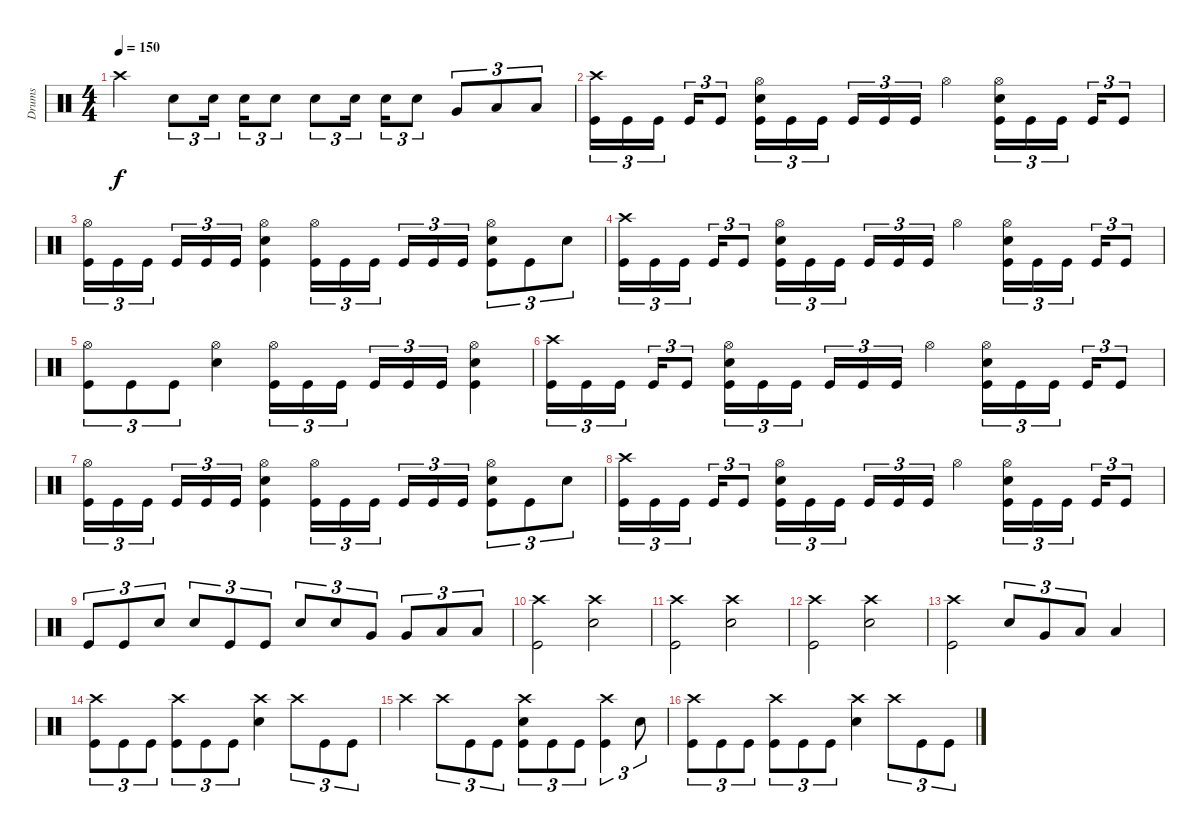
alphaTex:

\track ("Drums" "Drums") {instrument percussion}
\staff {score}
\articulation defaults
\ts (4 4)
\tempo 150
\clef neutral
\ks c "Crash high (hit)".4{dy f} "Electric Snare (hit)".8{tu (3 2)} "Electric Snare (hit)".16{tu (3 2) beam splitsecondary} "Electric Snare (hit)".16{tu (3 2)} "Electric Snare (hit)".8{tu (3 2)} "Electric Snare (hit)".8{tu (3 2)} "Electric Snare (hit)".16{tu (3 2) beam splitsecondary} "Electric Snare (hit)".16{tu (3 2)} "Electric Snare (hit)".8{tu (3 2)} "Very Low Tom (hit)".8{tu (3 2)} "Low Floor Tom (hit)".8{tu (3 2)} "Low Floor Tom (hit)".8{tu (3 2)}
|
("Crash high (hit)" "Kick (hit)").16{tu (3 2)} "Kick (hit)".16{tu (3 2)} "Kick (hit)".16{tu (3 2) beam splitsecondary} "Kick (hit)".16{tu (3 2)} "Kick (hit)".8{tu (3 2)} ("Hi-Hat (open)" "Electric Snare (hit)" "Kick (hit)").16{tu (3 2)} "Kick (hit)".16{tu (3 2)} "Kick (hit)".16{tu (3 2) beam splitsecondary} "Kick (hit)".16{tu (3 2)} "Kick (hit)".16{tu (3 2)} "Kick (hit)".16{tu (3 2)} "Hi-Hat (open)".4 ("Hi-Hat (open)" "Electric Snare (hit)" "Kick (hit)").16{tu (3 2)} "Kick (hit)".16{tu (3 2)} "Kick (hit)".16{tu (3 2) beam splitsecondary} "Kick (hit)".16{tu (3 2)} "Kick (hit)".8{tu (3 2)} |
("Hi-Hat (open)" "Kick (hit)").16{tu (3 2)} "Kick (hit)".16{tu (3 2)} "Kick (hit)".16{tu (3 2) beam splitsecondary} "Kick (hit)".16{tu (3 2)} "Kick (hit)".16{tu (3 2)} "Kick (hit)".16{tu (3 2)} ("Hi-Hat (open)" "Electric Snare (hit)" "Kick (hit)").4 ("Hi-Hat (open)" "Kick (hit)").16{tu (3 2)} "Kick (hit)".16{tu (3 2)} "Kick (hit)".16{tu (3 2) beam splitsecondary} "Kick (hit)".16{tu (3 2)} "Kick (hit)".16{tu (3 2)} "Kick (hit)".16{tu (3 2)} ("Hi-Hat (open)" "Electric Snare (hit)" "Kick (hit)").8{tu (3 2)} "Kick (hit)".8{tu (3 2)} "Electric Snare (hit)".8{tu (3 2)} |
("Crash high (hit)" "Kick (hit)").16{tu (3 2)} "Kick (hit)".16{tu (3 2)} "Kick (hit)".16{tu (3 2) beam splitsecondary} "Kick (hit)".16{tu (3 2)} "Kick (hit)".8{tu (3 2)} ("Hi-Hat (open)" "Electric Snare (hit)" "Kick (hit)").16{tu (3 2)} "Kick (hit)".16{tu (3 2)} "Kick (hit)".16{tu (3 2) beam splitsecondary} "Kick (hit)".16{tu (3 2)} "Kick (hit)".16{tu (3 2)} "Kick (hit)".16{tu (3 2)} "Hi-Hat (open)".4 ("Hi-Hat (open)" "Electric Snare (hit)" "Kick (hit)").16{tu (3 2)} "Kick (hit)".16{tu (3 2)} "Kick (hit)".16{tu (3 2) beam splitsecondary} "Kick (hit)".16{tu (3 2)} "Kick (hit)".8{tu (3 2)} |
("Hi-Hat (open)" "Kick (hit)").8{tu (3 2)} "Kick (hit)".8{tu (3 2)} "Kick (hit)".8{tu (3 2)} ("Hi-Hat (open)" "Electric Snare (hit)").4 ("Hi-Hat (open)" "Kick (hit)").16{tu (3 2)} "Kick (hit)".16{tu (3 2)} "Kick (hit)".16{tu (3 2) beam splitsecondary} "Kick (hit)".16{tu (3 2)} "Kick (hit)".16{tu (3 2)} "Kick (hit)".16{tu (3 2)} ("Hi-Hat (open)" "Electric Snare (hit)" "Kick (hit)").4 |
("Crash high (hit)" "Kick (hit)").16{tu (3 2)} "Kick (hit)".16{tu (3 2)} "Kick (hit)".16{tu (3 2) beam splitsecondary} "Kick (hit)".16{tu (3 2)} "Kick (hit)".8{tu (3 2)} ("Hi-Hat (open)" "Electric Snare (hit)" "Kick (hit)").16{tu (3 2)} "Kick (hit)".16{tu (3 2)} "Kick (hit)".16{tu (3 2) beam splitsecondary} "Kick (hit)".16{tu (3 2)} "Kick (hit)".16{tu (3 2)} "Kick (hit)".16{tu (3 2)} "Hi-Hat (open)".4 ("Hi-Hat (open)" "Electric Snare (hit)" "Kick (hit)").16{tu (3 2)} "Kick (hit)".16{tu (3 2)} "Kick (hit)".16{tu (3 2) beam splitsecondary} "Kick (hit)".16{tu (3 2)} "Kick (hit)".8{tu (3 2)} |
("Hi-Hat (open)" "Kick (hit)").16{tu (3 2)} "Kick (hit)".16{tu (3 2)} "Kick (hit)".16{tu (3 2) beam splitsecondary} "Kick (hit)".16{tu (3 2)} "Kick (hit)".16{tu (3 2)} "Kick (hit)".16{tu (3 2)} ("Hi-Hat (open)" "Electric Snare (hit)" "Kick (hit)").4 ("Hi-Hat (open)" "Kick (hit)").16{tu (3 2)} "Kick (hit)".16{tu (3 2)} "Kick (hit)".16{tu (3 2) beam splitsecondary} "Kick (hit)".16{tu (3 2)} "Kick (hit)".16{tu (3 2)} "Kick (hit)".16{tu (3 2)} ("Hi-Hat (open)" "Electric Snare (hit)" "Kick (hit)").8{tu (3 2)} "Kick (hit)".8{tu (3 2)} "Electric Snare (hit)".8{tu (3 2)} |
("Crash high (hit)" "Kick (hit)").16{tu (3 2)} "Kick (hit)".16{tu (3 2)} "Kick (hit)".16{tu (3 2) beam splitsecondary} "Kick (hit)".16{tu (3 2)} "Kick (hit)".8{tu (3 2)} ("Hi-Hat (open)" "Electric Snare (hit)" "Kick (hit)").16{tu (3 2)} "Kick (hit)".16{tu (3 2)} "Kick (hit)".16{tu (3 2) beam splitsecondary} "Kick (hit)".16{tu (3 2)} "Kick (hit)".16{tu (3 2)} "Kick (hit)".16{tu (3 2)} "Hi-Hat (open)".4 ("Hi-Hat (open)" "Electric Snare (hit)" "Kick (hit)").16{tu (3 2)} "Kick (hit)".16{tu (3 2)} "Kick (hit)".16{tu (3 2) beam splitsecondary} "Kick (hit)".16{tu (3 2)} "Kick (hit)".8{tu (3 2)} |
"Kick (hit)".8{tu (3 2)} "Kick (hit)".8{tu (3 2)} "Electric Snare (hit)".8{tu (3 2)} "Electric Snare (hit)".8{tu (3 2)} "Kick (hit)".8{tu (3 2)} "Kick (hit)".8{tu (3 2)} "Electric Snare (hit)".8{tu (3 2)} "Electric Snare (hit)".8{tu (3 2)} "Very Low Tom (hit)".8{tu (3 2)} "Very Low Tom (hit)".8{tu (3 2)} "Low Floor Tom (hit)".8{tu (3 2)} "Low Floor Tom (hit)".8{tu (3 2)} |
("Crash high (hit)" "Kick (hit)").2 ("Crash high (hit)" "Electric Snare (hit)").2 |
("Crash high (hit)" "Kick (hit)").2 ("Crash high (hit)" "Electric Snare (hit)").2 |
("Crash high (hit)" "Kick (hit)").2 ("Crash high (hit)" "Electric Snare (hit)").2 |
("Crash high (hit)" "Kick (hit)").2 "Electric Snare (hit)".8{tu (3 2)} "Very Low Tom (hit)".8{tu (3 2)} "Low Floor Tom (hit)".8{tu (3 2)} "Low Floor Tom (hit)".4 |
("Crash high (hit)" "Kick (hit)").8{tu (3 2)} "Kick (hit)".8{tu (3 2)} "Kick (hit)".8{tu (3 2)} ("Crash high (hit)" "Kick (hit)").8{tu (3 2)} "Kick (hit)".8{tu (3 2)} "Kick (hit)".8{tu (3 2)} ("Crash high (hit)" "Electric Snare (hit)").4 "Crash high (hit)".8{tu (3 2)} "Kick (hit)".8{tu (3 2)} "Kick (hit)".8{tu (3 2)} |
"Crash high (hit)".4 "Crash high (hit)".8{tu (3 2)} "Kick (hit)".8{tu (3 2)} "Kick (hit)".8{tu (3 2)} ("Crash high (hit)" "Electric Snare (hit)" "Kick (hit)").8{tu (3 2)} "Kick (hit)".8{tu (3 2)} "Kick (hit)".8{tu (3 2)} ("Crash high (hit)" "Kick (hit)").4{tu (3 2)} "Electric Snare (hit)".8{tu (3 2)} |
("Crash high (hit)" "Kick (hit)").8{tu (3 2)} "Kick (hit)".8{tu (3 2)} "Kick (hit)".8{tu (3 2)} ("Crash high (hit)" "Kick (hit)").8{tu (3 2)} "Kick (hit)".8{tu (3 2)} "Kick (hit)".8{tu (3 2)} ("Crash high (hit)" "Electric Snare (hit)").4 "Crash high (hit)".8{tu (3 2)} "Kick (hit)".8{tu (3 2)} "Kick (hit)".8{tu (3 2)}
